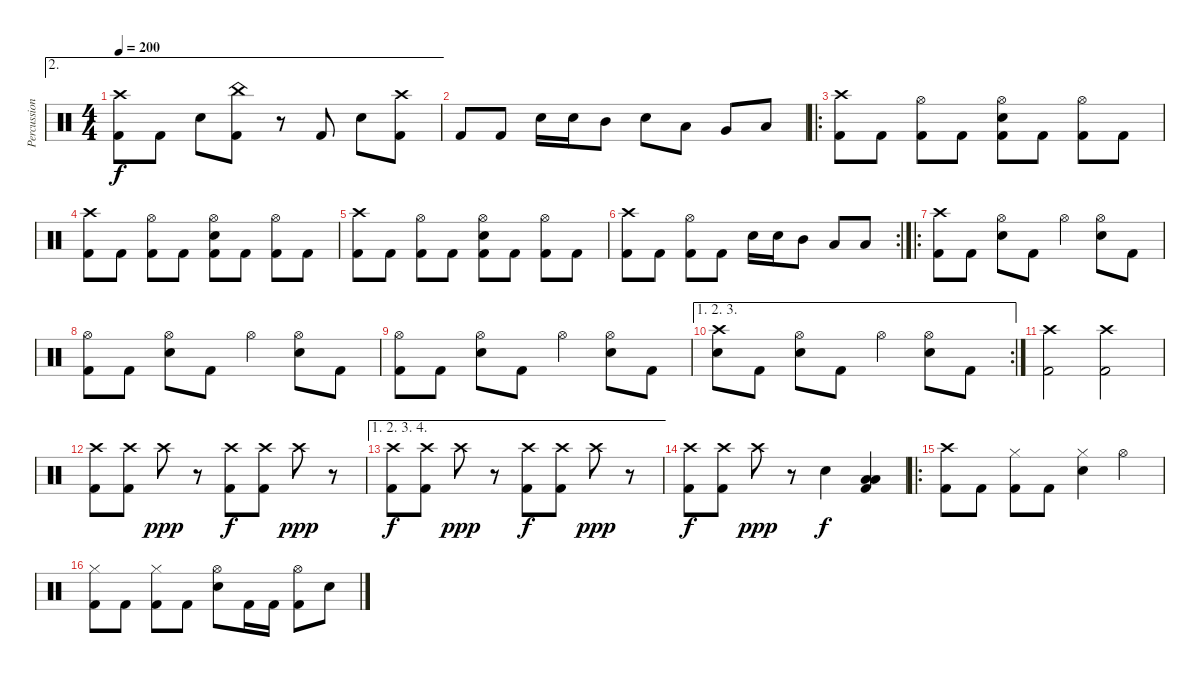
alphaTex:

\track ("Percussions" "Percussion") {instrument percussion}
\staff {score}
\articulation defaults
\ae 2
\ts (4 4)
\tempo 200
\clef neutral
\ks c
("Crash high (hit)" "Kick (hit) 2").8{dy f} "Kick (hit) 2".8 "Snare (hit) 2".8 ("China (hit)" "Kick (hit) 2").8 r.8 "Kick (hit) 2".8 "Snare (hit) 2".8 ("Crash high (hit)" "Kick (hit) 2").8 |
"Kick (hit) 2".8 "Kick (hit) 2".8 "Snare (hit) 2".16 "Snare (hit) 2".16 "Mid Tom (hit)".8 "Snare (hit) 2".8 "Low Floor Tom (hit)".8 "Very Low Tom (hit)".8 "Low Floor Tom (hit)".8 |
\ro
("Crash high (hit)" "Kick (hit) 2").8 "Kick (hit) 2".8 ("Hi-Hat (open)" "Kick (hit) 2").8 "Kick (hit) 2".8 ("Hi-Hat (open)" "Snare (hit) 2" "Kick (hit) 2").8 "Kick (hit) 2".8 ("Hi-Hat (open)" "Kick (hit) 2").8 "Kick (hit) 2".8 |
("Crash high (hit)" "Kick (hit) 2").8 "Kick (hit) 2".8 ("Hi-Hat (open)" "Kick (hit) 2").8 "Kick (hit) 2".8 ("Hi-Hat (open)" "Snare (hit) 2" "Kick (hit) 2").8 "Kick (hit) 2".8 ("Hi-Hat (open)" "Kick (hit) 2").8 "Kick (hit) 2".8 |
("Crash high (hit)" "Kick (hit) 2").8 "Kick (hit) 2".8 ("Hi-Hat (open)" "Kick (hit) 2").8 "Kick (hit) 2".8 ("Hi-Hat (open)" "Snare (hit) 2" "Kick (hit) 2").8 "Kick (hit) 2".8 ("Hi-Hat (open)" "Kick (hit) 2").8 "Kick (hit) 2".8 |
\rc 2
("Crash high (hit)" "Kick (hit) 2").8 "Kick (hit) 2".8 ("Hi-Hat (open)" "Kick (hit) 2").8 "Kick (hit) 2".8 "Snare (hit) 2".16 "Snare (hit) 2".16 "Mid Tom (hit)".8 "Low Tom (hit)".8 "Low Floor Tom (hit)".8 |
\ro
("Crash high (hit)" "Kick (hit) 2").8 "Kick (hit) 2".8 ("Hi-Hat (open)" "Snare (hit) 2").8 "Kick (hit) 2".8 "Hi-Hat (open)".4 ("Hi-Hat (open)" "Snare (hit) 2").8 "Kick (hit) 2".8 |
("Hi-Hat (open)" "Kick (hit) 2").8 "Kick (hit) 2".8 ("Hi-Hat (open)" "Snare (hit) 2").8 "Kick (hit) 2".8 "Hi-Hat (open)".4 ("Hi-Hat (open)" "Snare (hit) 2").8 "Kick (hit) 2".8 |
("Hi-Hat (open)" "Kick (hit) 2").8 "Kick (hit) 2".8 ("Hi-Hat (open)" "Snare (hit) 2").8 "Kick (hit) 2".8 "Hi-Hat (open)".4 ("Hi-Hat (open)" "Snare (hit) 2").8 "Kick (hit) 2".8 |
\ae (1 2 3)
\rc 2
("Crash high (hit)" "Snare (hit) 2").8 "Kick (hit) 2".8 ("Hi-Hat (open)" "Snare (hit) 2").8 "Kick (hit) 2".8 "Hi-Hat (open)".4 ("Hi-Hat (open)" "Snare (hit) 2").8 "Kick (hit) 2".8 |
("Crash high (hit)" "Kick (hit) 2").2 ("Crash high (hit)" "Kick (hit) 2").2 |
("Crash high (hit)" "Kick (hit) 2").8 ("Crash high (hit)" "Kick (hit) 2").8 "Crash high (hit)".8{dy ppp} r.8 ("Crash high (hit)" "Kick (hit) 2").8{dy f} ("Crash high (hit)" "Kick (hit) 2").8 "Crash high (hit)".8{dy ppp} r.8 |
\ae (1 2 3 4)
("Crash high (hit)" "Kick (hit) 2").8{dy f} ("Crash high (hit)" "Kick (hit) 2").8 "Crash high (hit)".8{dy ppp} r.8 ("Crash high (hit)" "Kick (hit) 2").8{dy f} ("Crash high (hit)" "Kick (hit) 2").8 "Crash high (hit)".8{dy ppp} r.8 |
("Crash high (hit)" "Kick (hit) 2").8{dy f} ("Crash high (hit)" "Kick (hit) 2").8 "Crash high (hit)".8{dy ppp} r.8 "Snare (hit) 2".4{dy f} ("Low Floor Tom (hit)" "Low Floor Tom (hit)" "Kick (hit) 2").4 |
\ro
("Crash high (hit)" "Kick (hit) 2").8 "Kick (hit) 2".8 ("Hi-Hat (closed)" "Kick (hit) 2").8 "Kick (hit) 2".8 ("Hi-Hat (closed)" "Snare (hit) 2").4 "Hi-Hat (open)".4 |
("Hi-Hat (closed)" "Kick (hit) 2").8 "Kick (hit) 2".8 ("Hi-Hat (closed)" "Kick (hit) 2").8 "Kick (hit) 2".8 ("Hi-Hat (open)" "Snare (hit) 2").8 "Kick (hit) 2".16 "Kick (hit) 2".16 ("Hi-Hat (open)" "Kick (hit) 2").8 "Snare (hit) 2".8
